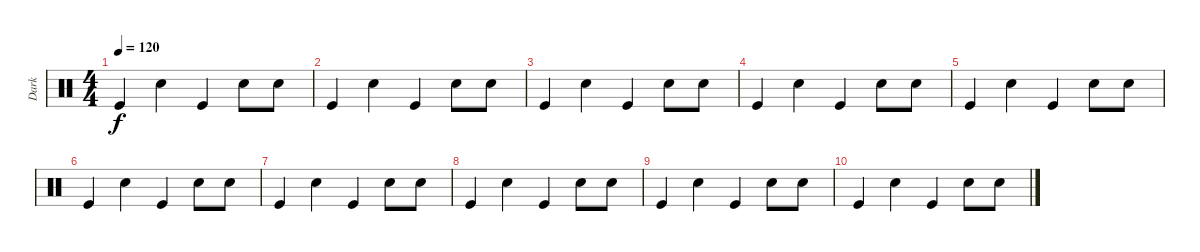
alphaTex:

\track ("Dark" "Dark") {instrument percussion}
\staff {score}
\articulation defaults
\ts (4 4)
\tempo 120
\clef neutral
\ks c "Kick (hit)".4{dy f} "Snare (hit) 2".4 "Kick (hit)".4 "Snare (hit) 2".8 "Snare (hit) 2".8
|
"Kick (hit)".4 "Snare (hit) 2".4 "Kick (hit)".4 "Snare (hit) 2".8 "Snare (hit) 2".8 |
"Kick (hit)".4 "Snare (hit) 2".4 "Kick (hit)".4 "Snare (hit) 2".8 "Snare (hit) 2".8 |
"Kick (hit)".4 "Snare (hit) 2".4 "Kick (hit)".4 "Snare (hit) 2".8 "Snare (hit) 2".8 |
"Kick (hit)".4 "Snare (hit) 2".4 "Kick (hit)".4 "Snare (hit) 2".8 "Snare (hit) 2".8 |
"Kick (hit)".4 "Snare (hit) 2".4 "Kick (hit)".4 "Snare (hit) 2".8 "Snare (hit) 2".8 |
"Kick (hit)".4 "Snare (hit) 2".4 "Kick (hit)".4 "Snare (hit) 2".8 "Snare (hit) 2".8 |
"Kick (hit)".4 "Snare (hit) 2".4 "Kick (hit)".4 "Snare (hit) 2".8 "Snare (hit) 2".8 |
"Kick (hit)".4 "Snare (hit) 2".4 "Kick (hit)".4 "Snare (hit) 2".8 "Snare (hit) 2".8 |
"Kick (hit)".4 "Snare (hit) 2".4 "Kick (hit)".4 "Snare (hit) 2".8 "Snare (hit) 2".8
